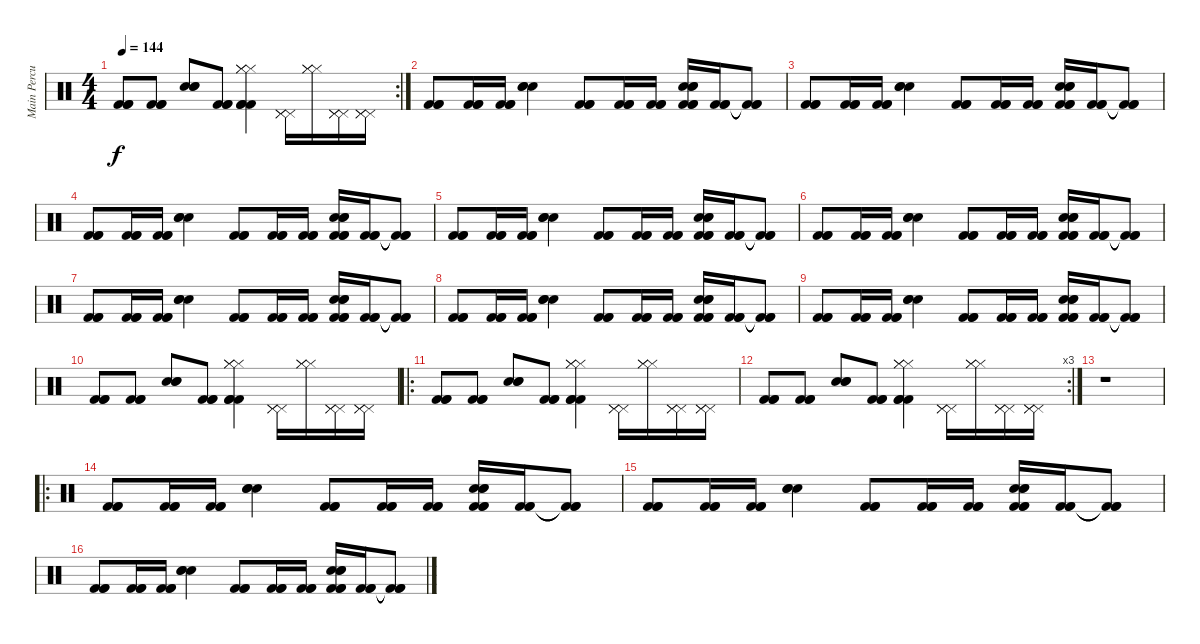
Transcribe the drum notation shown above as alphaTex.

\track ("Main Percussion" "Main Percu") {instrument percussion}
\staff {score}
\articulation defaults
\rc 2
\ts (4 4)
\tempo 144
\clef neutral
\ks c
("Kick (hit) 2" "Kick (hit) 2" "Kick (hit) 2").8{dy f} ("Kick (hit) 2" "Kick (hit) 2" "Kick (hit) 2").8 ("Snare (hit) 2" "Snare (hit) 2" "Snare (hit) 2").8 ("Kick (hit) 2" "Kick (hit) 2" "Kick (hit) 2").8 ("Hi-Hat (closed)" "Hi-Hat (closed)" "Hi-Hat (closed)" "Kick (hit) 2" "Kick (hit) 2" "Kick (hit) 2").4 ("Pedal Hi-Hat (hit)" "Pedal Hi-Hat (hit)" "Pedal Hi-Hat (hit)").16 ("Hi-Hat (closed)" "Hi-Hat (closed)" "Hi-Hat (closed)").16 ("Pedal Hi-Hat (hit)" "Pedal Hi-Hat (hit)" "Pedal Hi-Hat (hit)").16 ("Pedal Hi-Hat (hit)" "Pedal Hi-Hat (hit)" "Pedal Hi-Hat (hit)").16 |
("Kick (hit) 2" "Kick (hit) 2" "Kick (hit) 2").8 ("Kick (hit) 2" "Kick (hit) 2" "Kick (hit) 2").16 ("Kick (hit) 2" "Kick (hit) 2" "Kick (hit) 2").16 ("Electric Snare (hit)" "Electric Snare (hit)" "Electric Snare (hit)").4 ("Kick (hit) 2" "Kick (hit) 2" "Kick (hit) 2").8 ("Kick (hit) 2" "Kick (hit) 2" "Kick (hit) 2").16 ("Kick (hit) 2" "Kick (hit) 2" "Kick (hit) 2").16 ("Snare (hit) 2" "Snare (hit) 2" "Snare (hit) 2" "Kick (hit) 2" "Kick (hit) 2" "Kick (hit) 2").16 ("Kick (hit) 2" "Kick (hit) 2" "Kick (hit) 2").16 ("Kick (hit) 2"{t} "Kick (hit) 2"{t} "Kick (hit) 2"{t}).8 |
("Kick (hit) 2" "Kick (hit) 2" "Kick (hit) 2").8 ("Kick (hit) 2" "Kick (hit) 2" "Kick (hit) 2").16 ("Kick (hit) 2" "Kick (hit) 2" "Kick (hit) 2").16 ("Electric Snare (hit)" "Electric Snare (hit)" "Electric Snare (hit)").4 ("Kick (hit) 2" "Kick (hit) 2" "Kick (hit) 2").8 ("Kick (hit) 2" "Kick (hit) 2" "Kick (hit) 2").16 ("Kick (hit) 2" "Kick (hit) 2" "Kick (hit) 2").16 ("Snare (hit) 2" "Snare (hit) 2" "Snare (hit) 2" "Kick (hit) 2" "Kick (hit) 2" "Kick (hit) 2").16 ("Kick (hit) 2" "Kick (hit) 2" "Kick (hit) 2").16 ("Kick (hit) 2"{t} "Kick (hit) 2"{t} "Kick (hit) 2"{t}).8 |
("Kick (hit) 2" "Kick (hit) 2" "Kick (hit) 2").8 ("Kick (hit) 2" "Kick (hit) 2" "Kick (hit) 2").16 ("Kick (hit) 2" "Kick (hit) 2" "Kick (hit) 2").16 ("Electric Snare (hit)" "Electric Snare (hit)" "Electric Snare (hit)").4 ("Kick (hit) 2" "Kick (hit) 2" "Kick (hit) 2").8 ("Kick (hit) 2" "Kick (hit) 2" "Kick (hit) 2").16 ("Kick (hit) 2" "Kick (hit) 2" "Kick (hit) 2").16 ("Snare (hit) 2" "Snare (hit) 2" "Snare (hit) 2" "Kick (hit) 2" "Kick (hit) 2" "Kick (hit) 2").16 ("Kick (hit) 2" "Kick (hit) 2" "Kick (hit) 2").16 ("Kick (hit) 2"{t} "Kick (hit) 2"{t} "Kick (hit) 2"{t}).8 |
("Kick (hit) 2" "Kick (hit) 2" "Kick (hit) 2").8 ("Kick (hit) 2" "Kick (hit) 2" "Kick (hit) 2").16 ("Kick (hit) 2" "Kick (hit) 2" "Kick (hit) 2").16 ("Electric Snare (hit)" "Electric Snare (hit)" "Electric Snare (hit)").4 ("Kick (hit) 2" "Kick (hit) 2" "Kick (hit) 2").8 ("Kick (hit) 2" "Kick (hit) 2" "Kick (hit) 2").16 ("Kick (hit) 2" "Kick (hit) 2" "Kick (hit) 2").16 ("Snare (hit) 2" "Snare (hit) 2" "Snare (hit) 2" "Kick (hit) 2" "Kick (hit) 2" "Kick (hit) 2").16 ("Kick (hit) 2" "Kick (hit) 2" "Kick (hit) 2").16 ("Kick (hit) 2"{t} "Kick (hit) 2"{t} "Kick (hit) 2"{t}).8 |
("Kick (hit) 2" "Kick (hit) 2" "Kick (hit) 2").8 ("Kick (hit) 2" "Kick (hit) 2" "Kick (hit) 2").16 ("Kick (hit) 2" "Kick (hit) 2" "Kick (hit) 2").16 ("Electric Snare (hit)" "Electric Snare (hit)" "Electric Snare (hit)").4 ("Kick (hit) 2" "Kick (hit) 2" "Kick (hit) 2").8 ("Kick (hit) 2" "Kick (hit) 2" "Kick (hit) 2").16 ("Kick (hit) 2" "Kick (hit) 2" "Kick (hit) 2").16 ("Snare (hit) 2" "Snare (hit) 2" "Snare (hit) 2" "Kick (hit) 2" "Kick (hit) 2" "Kick (hit) 2").16 ("Kick (hit) 2" "Kick (hit) 2" "Kick (hit) 2").16 ("Kick (hit) 2"{t} "Kick (hit) 2"{t} "Kick (hit) 2"{t}).8 |
("Kick (hit) 2" "Kick (hit) 2" "Kick (hit) 2").8 ("Kick (hit) 2" "Kick (hit) 2" "Kick (hit) 2").16 ("Kick (hit) 2" "Kick (hit) 2" "Kick (hit) 2").16 ("Electric Snare (hit)" "Electric Snare (hit)" "Electric Snare (hit)").4 ("Kick (hit) 2" "Kick (hit) 2" "Kick (hit) 2").8 ("Kick (hit) 2" "Kick (hit) 2" "Kick (hit) 2").16 ("Kick (hit) 2" "Kick (hit) 2" "Kick (hit) 2").16 ("Snare (hit) 2" "Snare (hit) 2" "Snare (hit) 2" "Kick (hit) 2" "Kick (hit) 2" "Kick (hit) 2").16 ("Kick (hit) 2" "Kick (hit) 2" "Kick (hit) 2").16 ("Kick (hit) 2"{t} "Kick (hit) 2"{t} "Kick (hit) 2"{t}).8 |
("Kick (hit) 2" "Kick (hit) 2" "Kick (hit) 2").8 ("Kick (hit) 2" "Kick (hit) 2" "Kick (hit) 2").16 ("Kick (hit) 2" "Kick (hit) 2" "Kick (hit) 2").16 ("Electric Snare (hit)" "Electric Snare (hit)" "Electric Snare (hit)").4 ("Kick (hit) 2" "Kick (hit) 2" "Kick (hit) 2").8 ("Kick (hit) 2" "Kick (hit) 2" "Kick (hit) 2").16 ("Kick (hit) 2" "Kick (hit) 2" "Kick (hit) 2").16 ("Snare (hit) 2" "Snare (hit) 2" "Snare (hit) 2" "Kick (hit) 2" "Kick (hit) 2" "Kick (hit) 2").16 ("Kick (hit) 2" "Kick (hit) 2" "Kick (hit) 2").16 ("Kick (hit) 2"{t} "Kick (hit) 2"{t} "Kick (hit) 2"{t}).8 |
("Kick (hit) 2" "Kick (hit) 2" "Kick (hit) 2").8 ("Kick (hit) 2" "Kick (hit) 2" "Kick (hit) 2").16 ("Kick (hit) 2" "Kick (hit) 2" "Kick (hit) 2").16 ("Electric Snare (hit)" "Electric Snare (hit)" "Electric Snare (hit)").4 ("Kick (hit) 2" "Kick (hit) 2" "Kick (hit) 2").8 ("Kick (hit) 2" "Kick (hit) 2" "Kick (hit) 2").16 ("Kick (hit) 2" "Kick (hit) 2" "Kick (hit) 2").16 ("Snare (hit) 2" "Snare (hit) 2" "Snare (hit) 2" "Kick (hit) 2" "Kick (hit) 2" "Kick (hit) 2").16 ("Kick (hit) 2" "Kick (hit) 2" "Kick (hit) 2").16 ("Kick (hit) 2"{t} "Kick (hit) 2"{t} "Kick (hit) 2"{t}).8 |
("Kick (hit) 2" "Kick (hit) 2" "Kick (hit) 2").8 ("Kick (hit) 2" "Kick (hit) 2" "Kick (hit) 2").8 ("Snare (hit) 2" "Snare (hit) 2" "Snare (hit) 2").8 ("Kick (hit) 2" "Kick (hit) 2" "Kick (hit) 2").8 ("Hi-Hat (closed)" "Hi-Hat (closed)" "Hi-Hat (closed)" "Kick (hit) 2" "Kick (hit) 2" "Kick (hit) 2").4 ("Pedal Hi-Hat (hit)" "Pedal Hi-Hat (hit)" "Pedal Hi-Hat (hit)").16 ("Hi-Hat (closed)" "Hi-Hat (closed)" "Hi-Hat (closed)").16 ("Pedal Hi-Hat (hit)" "Pedal Hi-Hat (hit)" "Pedal Hi-Hat (hit)").16 ("Pedal Hi-Hat (hit)" "Pedal Hi-Hat (hit)" "Pedal Hi-Hat (hit)").16 |
\ro
("Kick (hit) 2" "Kick (hit) 2" "Kick (hit) 2").8 ("Kick (hit) 2" "Kick (hit) 2" "Kick (hit) 2").8 ("Snare (hit) 2" "Snare (hit) 2" "Snare (hit) 2").8 ("Kick (hit) 2" "Kick (hit) 2" "Kick (hit) 2").8 ("Hi-Hat (closed)" "Hi-Hat (closed)" "Hi-Hat (closed)" "Kick (hit) 2" "Kick (hit) 2" "Kick (hit) 2").4 ("Pedal Hi-Hat (hit)" "Pedal Hi-Hat (hit)" "Pedal Hi-Hat (hit)").16 ("Hi-Hat (closed)" "Hi-Hat (closed)" "Hi-Hat (closed)").16 ("Pedal Hi-Hat (hit)" "Pedal Hi-Hat (hit)" "Pedal Hi-Hat (hit)").16 ("Pedal Hi-Hat (hit)" "Pedal Hi-Hat (hit)" "Pedal Hi-Hat (hit)").16 |
\rc 3
("Kick (hit) 2" "Kick (hit) 2" "Kick (hit) 2").8 ("Kick (hit) 2" "Kick (hit) 2" "Kick (hit) 2").8 ("Snare (hit) 2" "Snare (hit) 2" "Snare (hit) 2").8 ("Kick (hit) 2" "Kick (hit) 2" "Kick (hit) 2").8 ("Hi-Hat (closed)" "Hi-Hat (closed)" "Hi-Hat (closed)" "Kick (hit) 2" "Kick (hit) 2" "Kick (hit) 2").4 ("Pedal Hi-Hat (hit)" "Pedal Hi-Hat (hit)" "Pedal Hi-Hat (hit)").16 ("Hi-Hat (closed)" "Hi-Hat (closed)" "Hi-Hat (closed)").16 ("Pedal Hi-Hat (hit)" "Pedal Hi-Hat (hit)" "Pedal Hi-Hat (hit)").16 ("Pedal Hi-Hat (hit)" "Pedal Hi-Hat (hit)" "Pedal Hi-Hat (hit)").16 |
r.1 |
\ro
("Kick (hit) 2" "Kick (hit) 2" "Kick (hit) 2").8 ("Kick (hit) 2" "Kick (hit) 2" "Kick (hit) 2").16 ("Kick (hit) 2" "Kick (hit) 2" "Kick (hit) 2").16 ("Electric Snare (hit)" "Electric Snare (hit)" "Electric Snare (hit)").4 ("Kick (hit) 2" "Kick (hit) 2" "Kick (hit) 2").8 ("Kick (hit) 2" "Kick (hit) 2" "Kick (hit) 2").16 ("Kick (hit) 2" "Kick (hit) 2" "Kick (hit) 2").16 ("Snare (hit) 2" "Snare (hit) 2" "Snare (hit) 2" "Kick (hit) 2" "Kick (hit) 2" "Kick (hit) 2").16 ("Kick (hit) 2" "Kick (hit) 2" "Kick (hit) 2").16 ("Kick (hit) 2"{t} "Kick (hit) 2"{t} "Kick (hit) 2"{t}).8 |
("Kick (hit) 2" "Kick (hit) 2" "Kick (hit) 2").8 ("Kick (hit) 2" "Kick (hit) 2" "Kick (hit) 2").16 ("Kick (hit) 2" "Kick (hit) 2" "Kick (hit) 2").16 ("Electric Snare (hit)" "Electric Snare (hit)" "Electric Snare (hit)").4 ("Kick (hit) 2" "Kick (hit) 2" "Kick (hit) 2").8 ("Kick (hit) 2" "Kick (hit) 2" "Kick (hit) 2").16 ("Kick (hit) 2" "Kick (hit) 2" "Kick (hit) 2").16 ("Snare (hit) 2" "Snare (hit) 2" "Snare (hit) 2" "Kick (hit) 2" "Kick (hit) 2" "Kick (hit) 2").16 ("Kick (hit) 2" "Kick (hit) 2" "Kick (hit) 2").16 ("Kick (hit) 2"{t} "Kick (hit) 2"{t} "Kick (hit) 2"{t}).8 |
("Kick (hit) 2" "Kick (hit) 2" "Kick (hit) 2").8 ("Kick (hit) 2" "Kick (hit) 2" "Kick (hit) 2").16 ("Kick (hit) 2" "Kick (hit) 2" "Kick (hit) 2").16 ("Electric Snare (hit)" "Electric Snare (hit)" "Electric Snare (hit)").4 ("Kick (hit) 2" "Kick (hit) 2" "Kick (hit) 2").8 ("Kick (hit) 2" "Kick (hit) 2" "Kick (hit) 2").16 ("Kick (hit) 2" "Kick (hit) 2" "Kick (hit) 2").16 ("Snare (hit) 2" "Snare (hit) 2" "Snare (hit) 2" "Kick (hit) 2" "Kick (hit) 2" "Kick (hit) 2").16 ("Kick (hit) 2" "Kick (hit) 2" "Kick (hit) 2").16 ("Kick (hit) 2"{t} "Kick (hit) 2"{t} "Kick (hit) 2"{t}).8
